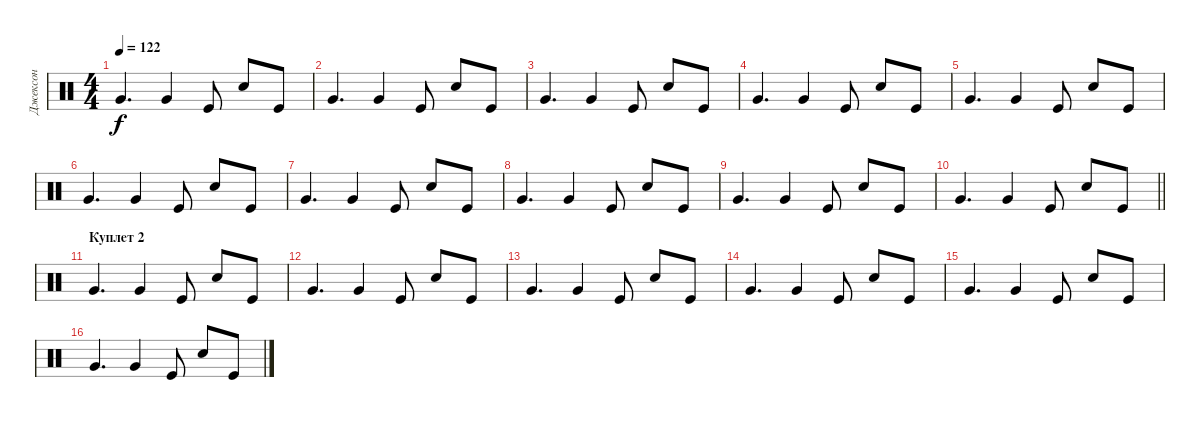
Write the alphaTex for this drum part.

\track ("Джексон" "Джексон") {instrument percussion}
\staff {score}
\articulation defaults
\ts (4 4)
\tempo 122
\clef neutral
\ks c "Very Low Tom (hit)".4{d dy f} "Very Low Tom (hit)".4 "Kick (hit)".8 "Snare (hit) 2".8 "Kick (hit)".8
|
"Very Low Tom (hit)".4{d} "Very Low Tom (hit)".4 "Kick (hit)".8 "Snare (hit) 2".8 "Kick (hit)".8 |
"Very Low Tom (hit)".4{d} "Very Low Tom (hit)".4 "Kick (hit)".8 "Snare (hit) 2".8 "Kick (hit)".8 |
"Very Low Tom (hit)".4{d} "Very Low Tom (hit)".4 "Kick (hit)".8 "Snare (hit) 2".8 "Kick (hit)".8 |
"Very Low Tom (hit)".4{d} "Very Low Tom (hit)".4 "Kick (hit)".8 "Snare (hit) 2".8 "Kick (hit)".8 |
"Very Low Tom (hit)".4{d} "Very Low Tom (hit)".4 "Kick (hit)".8 "Snare (hit) 2".8 "Kick (hit)".8 |
"Very Low Tom (hit)".4{d} "Very Low Tom (hit)".4 "Kick (hit)".8 "Snare (hit) 2".8 "Kick (hit)".8 |
"Very Low Tom (hit)".4{d} "Very Low Tom (hit)".4 "Kick (hit)".8 "Snare (hit) 2".8 "Kick (hit)".8 |
"Very Low Tom (hit)".4{d} "Very Low Tom (hit)".4 "Kick (hit)".8 "Snare (hit) 2".8 "Kick (hit)".8 |
\barLineRight lightlight "Very Low Tom (hit)".4{d} "Very Low Tom (hit)".4 "Kick (hit)".8 "Snare (hit) 2".8 "Kick (hit)".8
|
\section ("" "Куплет 2")
"Very Low Tom (hit)".4{d} "Very Low Tom (hit)".4 "Kick (hit)".8 "Snare (hit) 2".8 "Kick (hit)".8 |
"Very Low Tom (hit)".4{d} "Very Low Tom (hit)".4 "Kick (hit)".8 "Snare (hit) 2".8 "Kick (hit)".8 |
"Very Low Tom (hit)".4{d} "Very Low Tom (hit)".4 "Kick (hit)".8 "Snare (hit) 2".8 "Kick (hit)".8 |
"Very Low Tom (hit)".4{d} "Very Low Tom (hit)".4 "Kick (hit)".8 "Snare (hit) 2".8 "Kick (hit)".8 |
"Very Low Tom (hit)".4{d} "Very Low Tom (hit)".4 "Kick (hit)".8 "Snare (hit) 2".8 "Kick (hit)".8 |
"Very Low Tom (hit)".4{d} "Very Low Tom (hit)".4 "Kick (hit)".8 "Snare (hit) 2".8 "Kick (hit)".8
